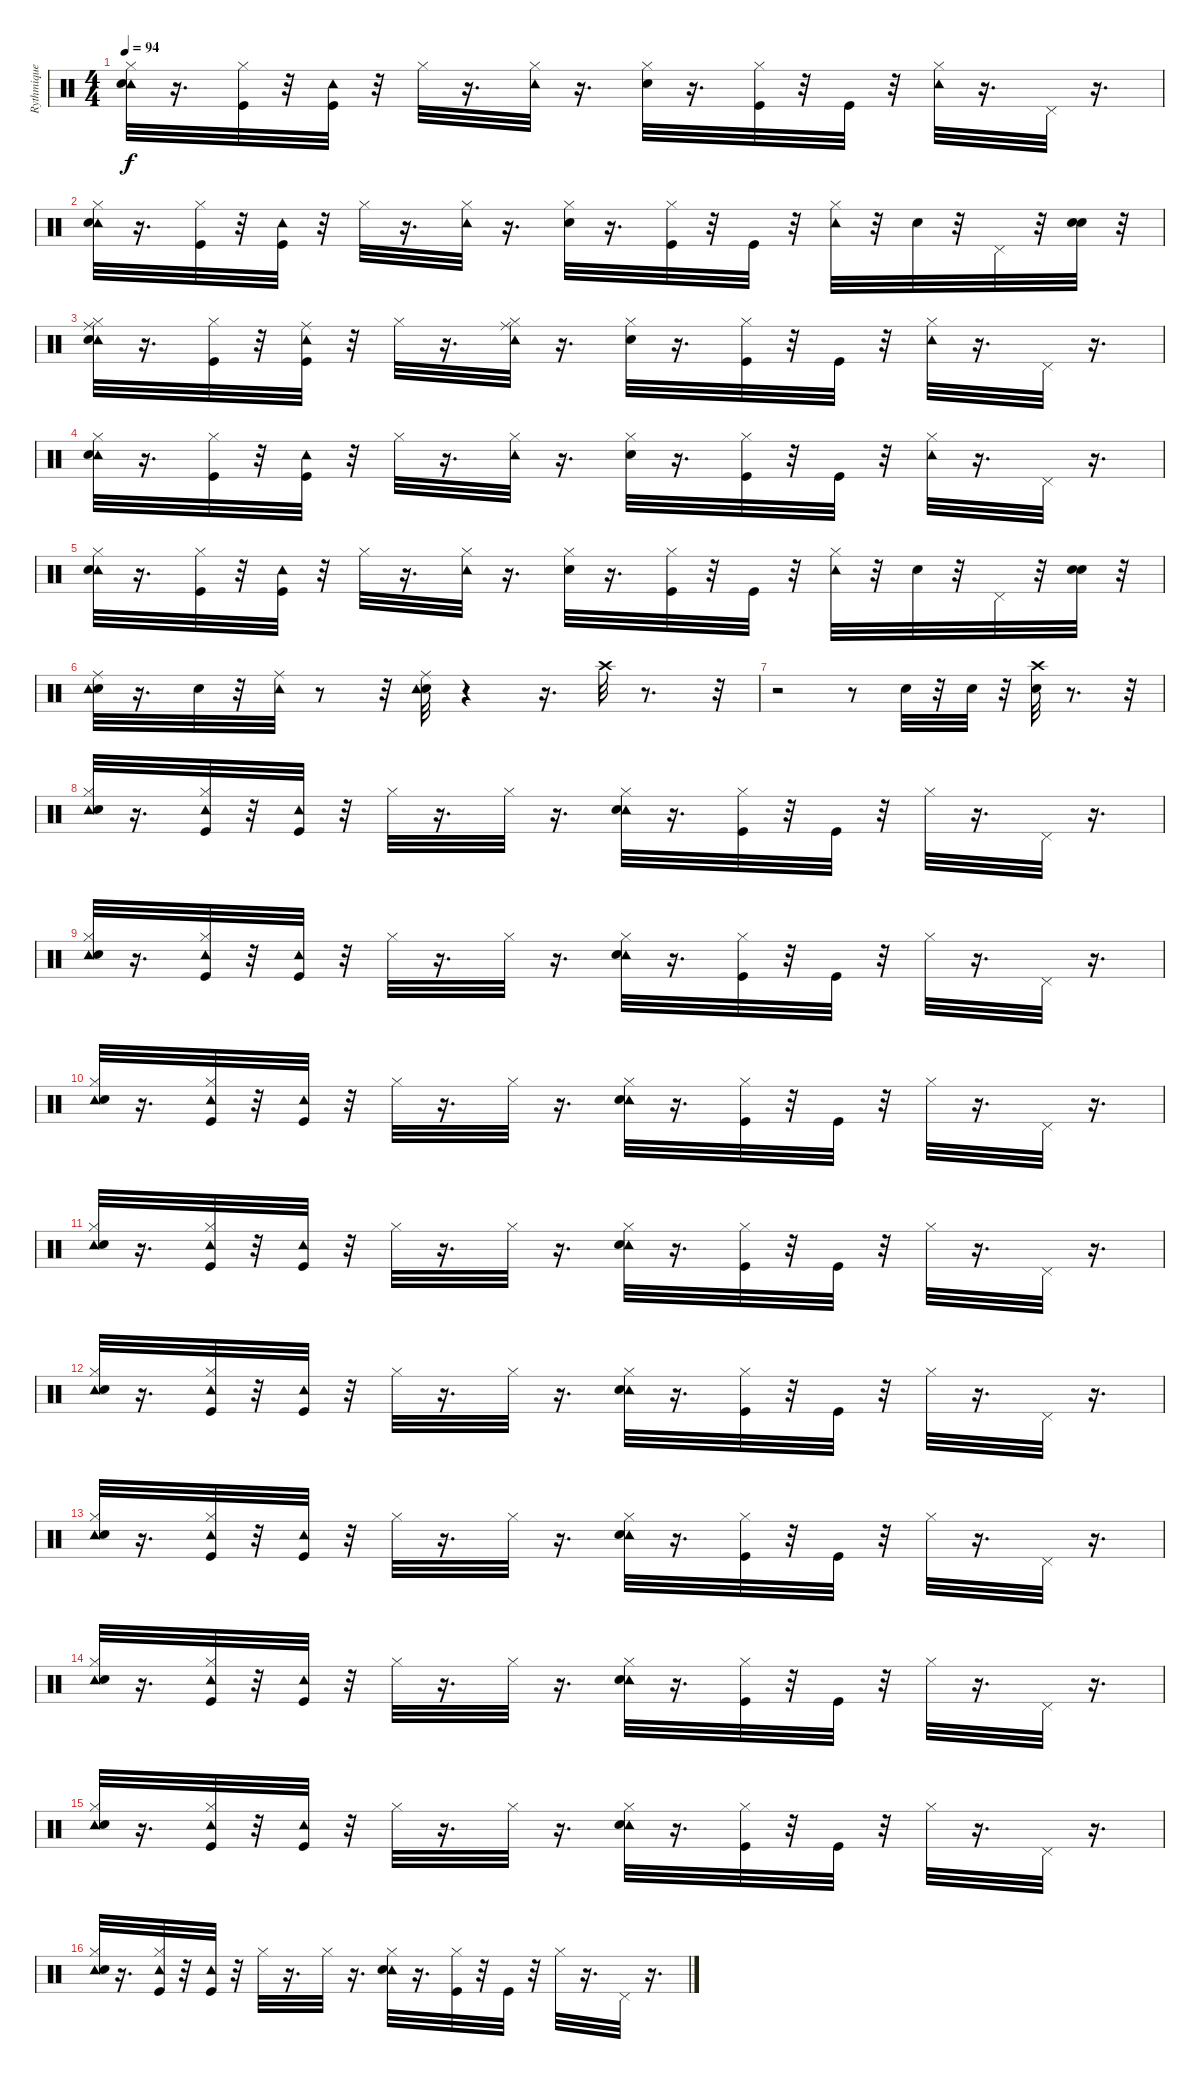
\track ("Rythmique" "Rythmique") {instrument percussion}
\staff {score}
\articulation defaults
\ts (4 4)
\tempo 94
\clef neutral
\ks c
("Tambourine (hit)" "Hi-Hat (closed)" "Electric Snare (hit)").32{dy f} r.16{d} ("Hi-Hat (closed)" "Kick (hit)").32 r.32 ("Tambourine (hit)" "Kick (hit)").32 r.32 "Hi-Hat (closed)".32 r.16{d} ("Tambourine (hit)" "Hi-Hat (closed)").32 r.16{d} ("Hi-Hat (closed)" "Electric Snare (hit)").32 r.16{d} ("Hi-Hat (closed)" "Kick (hit)").32 r.32 "Kick (hit)".32 r.32 ("Tambourine (hit)" "Hi-Hat (closed)").32 r.16{d} "Pedal Hi-Hat (hit)".32 r.16{d} |
("Tambourine (hit)" "Hi-Hat (closed)" "Electric Snare (hit)").32 r.16{d} ("Hi-Hat (closed)" "Kick (hit)").32 r.32 ("Tambourine (hit)" "Kick (hit)").32 r.32 "Hi-Hat (closed)".32 r.16{d} ("Tambourine (hit)" "Hi-Hat (closed)").32 r.16{d} ("Hi-Hat (closed)" "Electric Snare (hit)").32 r.16{d} ("Hi-Hat (closed)" "Kick (hit)").32 r.32 "Kick (hit)".32 r.32 ("Tambourine (hit)" "Hi-Hat (closed)").32 r.32 "Electric Snare (hit)".32 r.32 "Pedal Hi-Hat (hit)".32 r.32 ("Snare (hit) 2" "Electric Snare (hit)").32 r.32 |
("Ride (middle)" "Tambourine (hit)" "Hi-Hat (closed)" "Electric Snare (hit)").32 r.16{d} ("Hi-Hat (closed)" "Kick (hit)").32 r.32 ("Ride (middle)" "Tambourine (hit)" "Kick (hit)").32 r.32 "Hi-Hat (closed)".32 r.16{d} ("Ride (middle)" "Tambourine (hit)" "Hi-Hat (closed)").32 r.16{d} ("Hi-Hat (closed)" "Electric Snare (hit)").32 r.16{d} ("Hi-Hat (closed)" "Kick (hit)").32 r.32 "Kick (hit)".32 r.32 ("Tambourine (hit)" "Hi-Hat (closed)").32 r.16{d} "Pedal Hi-Hat (hit)".32 r.16{d} |
("Tambourine (hit)" "Hi-Hat (closed)" "Electric Snare (hit)").32 r.16{d} ("Hi-Hat (closed)" "Kick (hit)").32 r.32 ("Tambourine (hit)" "Kick (hit)").32 r.32 "Hi-Hat (closed)".32 r.16{d} ("Tambourine (hit)" "Hi-Hat (closed)").32 r.16{d} ("Hi-Hat (closed)" "Electric Snare (hit)").32 r.16{d} ("Hi-Hat (closed)" "Kick (hit)").32 r.32 "Kick (hit)".32 r.32 ("Tambourine (hit)" "Hi-Hat (closed)").32 r.16{d} "Pedal Hi-Hat (hit)".32 r.16{d} |
("Tambourine (hit)" "Hi-Hat (closed)" "Electric Snare (hit)").32 r.16{d} ("Hi-Hat (closed)" "Kick (hit)").32 r.32 ("Tambourine (hit)" "Kick (hit)").32 r.32 "Hi-Hat (closed)".32 r.16{d} ("Tambourine (hit)" "Hi-Hat (closed)").32 r.16{d} ("Hi-Hat (closed)" "Electric Snare (hit)").32 r.16{d} ("Hi-Hat (closed)" "Kick (hit)").32 r.32 "Kick (hit)".32 r.32 ("Tambourine (hit)" "Hi-Hat (closed)").32 r.32 "Electric Snare (hit)".32 r.32 "Pedal Hi-Hat (hit)".32 r.32 ("Electric Snare (hit)" "Snare (hit) 2").32 r.32 |
("Electric Snare (hit)" "Ride (middle)" "Tambourine (hit)").32 r.16{d} "Electric Snare (hit)".32 r.32 ("Ride (middle)" "Tambourine (hit)").32 r.8 r.32 ("Electric Snare (hit)" "Ride (middle)" "Tambourine (hit)").32 r.4 r.16{d} "Crash high (hit)".32 r.8{d} r.32 |
r.2 r.8 "Electric Snare (hit)".32 r.32 "Electric Snare (hit)".32 r.32 ("Hand Clap (hit)" "Crash high (hit)").32 r.8{d} r.32 |
("Tambourine (hit)" "Hi-Hat (closed)" "Electric Snare (hit)").32 r.16{d} ("Tambourine (hit)" "Hi-Hat (closed)" "Kick (hit)").32 r.32 ("Tambourine (hit)" "Kick (hit)").32 r.32 "Hi-Hat (closed)".32 r.16{d} "Hi-Hat (closed)".32 r.16{d} ("Tambourine (hit)" "Hi-Hat (closed)" "Electric Snare (hit)").32 r.16{d} ("Hi-Hat (closed)" "Kick (hit)").32 r.32 "Kick (hit)".32 r.32 "Hi-Hat (closed)".32 r.16{d} "Pedal Hi-Hat (hit)".32 r.16{d} |
("Tambourine (hit)" "Hi-Hat (closed)" "Electric Snare (hit)").32 r.16{d} ("Tambourine (hit)" "Hi-Hat (closed)" "Kick (hit)").32 r.32 ("Tambourine (hit)" "Kick (hit)").32 r.32 "Hi-Hat (closed)".32 r.16{d} "Hi-Hat (closed)".32 r.16{d} ("Tambourine (hit)" "Hi-Hat (closed)" "Electric Snare (hit)").32 r.16{d} ("Hi-Hat (closed)" "Kick (hit)").32 r.32 "Kick (hit)".32 r.32 "Hi-Hat (closed)".32 r.16{d} "Pedal Hi-Hat (hit)".32 r.16{d} |
("Tambourine (hit)" "Hi-Hat (closed)" "Electric Snare (hit)").32 r.16{d} ("Tambourine (hit)" "Hi-Hat (closed)" "Kick (hit)").32 r.32 ("Tambourine (hit)" "Kick (hit)").32 r.32 "Hi-Hat (closed)".32 r.16{d} "Hi-Hat (closed)".32 r.16{d} ("Tambourine (hit)" "Hi-Hat (closed)" "Electric Snare (hit)").32 r.16{d} ("Hi-Hat (closed)" "Kick (hit)").32 r.32 "Kick (hit)".32 r.32 "Hi-Hat (closed)".32 r.16{d} "Pedal Hi-Hat (hit)".32 r.16{d} |
("Tambourine (hit)" "Hi-Hat (closed)" "Electric Snare (hit)").32 r.16{d} ("Tambourine (hit)" "Hi-Hat (closed)" "Kick (hit)").32 r.32 ("Tambourine (hit)" "Kick (hit)").32 r.32 "Hi-Hat (closed)".32 r.16{d} "Hi-Hat (closed)".32 r.16{d} ("Tambourine (hit)" "Hi-Hat (closed)" "Electric Snare (hit)").32 r.16{d} ("Hi-Hat (closed)" "Kick (hit)").32 r.32 "Kick (hit)".32 r.32 "Hi-Hat (closed)".32 r.16{d} "Pedal Hi-Hat (hit)".32 r.16{d} |
("Tambourine (hit)" "Hi-Hat (closed)" "Electric Snare (hit)").32 r.16{d} ("Tambourine (hit)" "Hi-Hat (closed)" "Kick (hit)").32 r.32 ("Tambourine (hit)" "Kick (hit)").32 r.32 "Hi-Hat (closed)".32 r.16{d} "Hi-Hat (closed)".32 r.16{d} ("Tambourine (hit)" "Hi-Hat (closed)" "Electric Snare (hit)").32 r.16{d} ("Hi-Hat (closed)" "Kick (hit)").32 r.32 "Kick (hit)".32 r.32 "Hi-Hat (closed)".32 r.16{d} "Pedal Hi-Hat (hit)".32 r.16{d} |
("Tambourine (hit)" "Hi-Hat (closed)" "Electric Snare (hit)").32 r.16{d} ("Tambourine (hit)" "Hi-Hat (closed)" "Kick (hit)").32 r.32 ("Tambourine (hit)" "Kick (hit)").32 r.32 "Hi-Hat (closed)".32 r.16{d} "Hi-Hat (closed)".32 r.16{d} ("Tambourine (hit)" "Hi-Hat (closed)" "Electric Snare (hit)").32 r.16{d} ("Hi-Hat (closed)" "Kick (hit)").32 r.32 "Kick (hit)".32 r.32 "Hi-Hat (closed)".32 r.16{d} "Pedal Hi-Hat (hit)".32 r.16{d} |
("Tambourine (hit)" "Hi-Hat (closed)" "Electric Snare (hit)").32 r.16{d} ("Tambourine (hit)" "Hi-Hat (closed)" "Kick (hit)").32 r.32 ("Tambourine (hit)" "Kick (hit)").32 r.32 "Hi-Hat (closed)".32 r.16{d} "Hi-Hat (closed)".32 r.16{d} ("Tambourine (hit)" "Hi-Hat (closed)" "Electric Snare (hit)").32 r.16{d} ("Hi-Hat (closed)" "Kick (hit)").32 r.32 "Kick (hit)".32 r.32 "Hi-Hat (closed)".32 r.16{d} "Pedal Hi-Hat (hit)".32 r.16{d} |
("Tambourine (hit)" "Hi-Hat (closed)" "Electric Snare (hit)").32 r.16{d} ("Tambourine (hit)" "Hi-Hat (closed)" "Kick (hit)").32 r.32 ("Tambourine (hit)" "Kick (hit)").32 r.32 "Hi-Hat (closed)".32 r.16{d} "Hi-Hat (closed)".32 r.16{d} ("Tambourine (hit)" "Hi-Hat (closed)" "Electric Snare (hit)").32 r.16{d} ("Hi-Hat (closed)" "Kick (hit)").32 r.32 "Kick (hit)".32 r.32 "Hi-Hat (closed)".32 r.16{d} "Pedal Hi-Hat (hit)".32 r.16{d} |
("Tambourine (hit)" "Hi-Hat (closed)" "Electric Snare (hit)").32 r.16{d} ("Tambourine (hit)" "Hi-Hat (closed)" "Kick (hit)").32 r.32 ("Tambourine (hit)" "Kick (hit)").32 r.32 "Hi-Hat (closed)".32 r.16{d} "Hi-Hat (closed)".32 r.16{d} ("Tambourine (hit)" "Hi-Hat (closed)" "Electric Snare (hit)").32 r.16{d} ("Hi-Hat (closed)" "Kick (hit)").32 r.32 "Kick (hit)".32 r.32 "Hi-Hat (closed)".32 r.16{d} "Pedal Hi-Hat (hit)".32 r.16{d}
